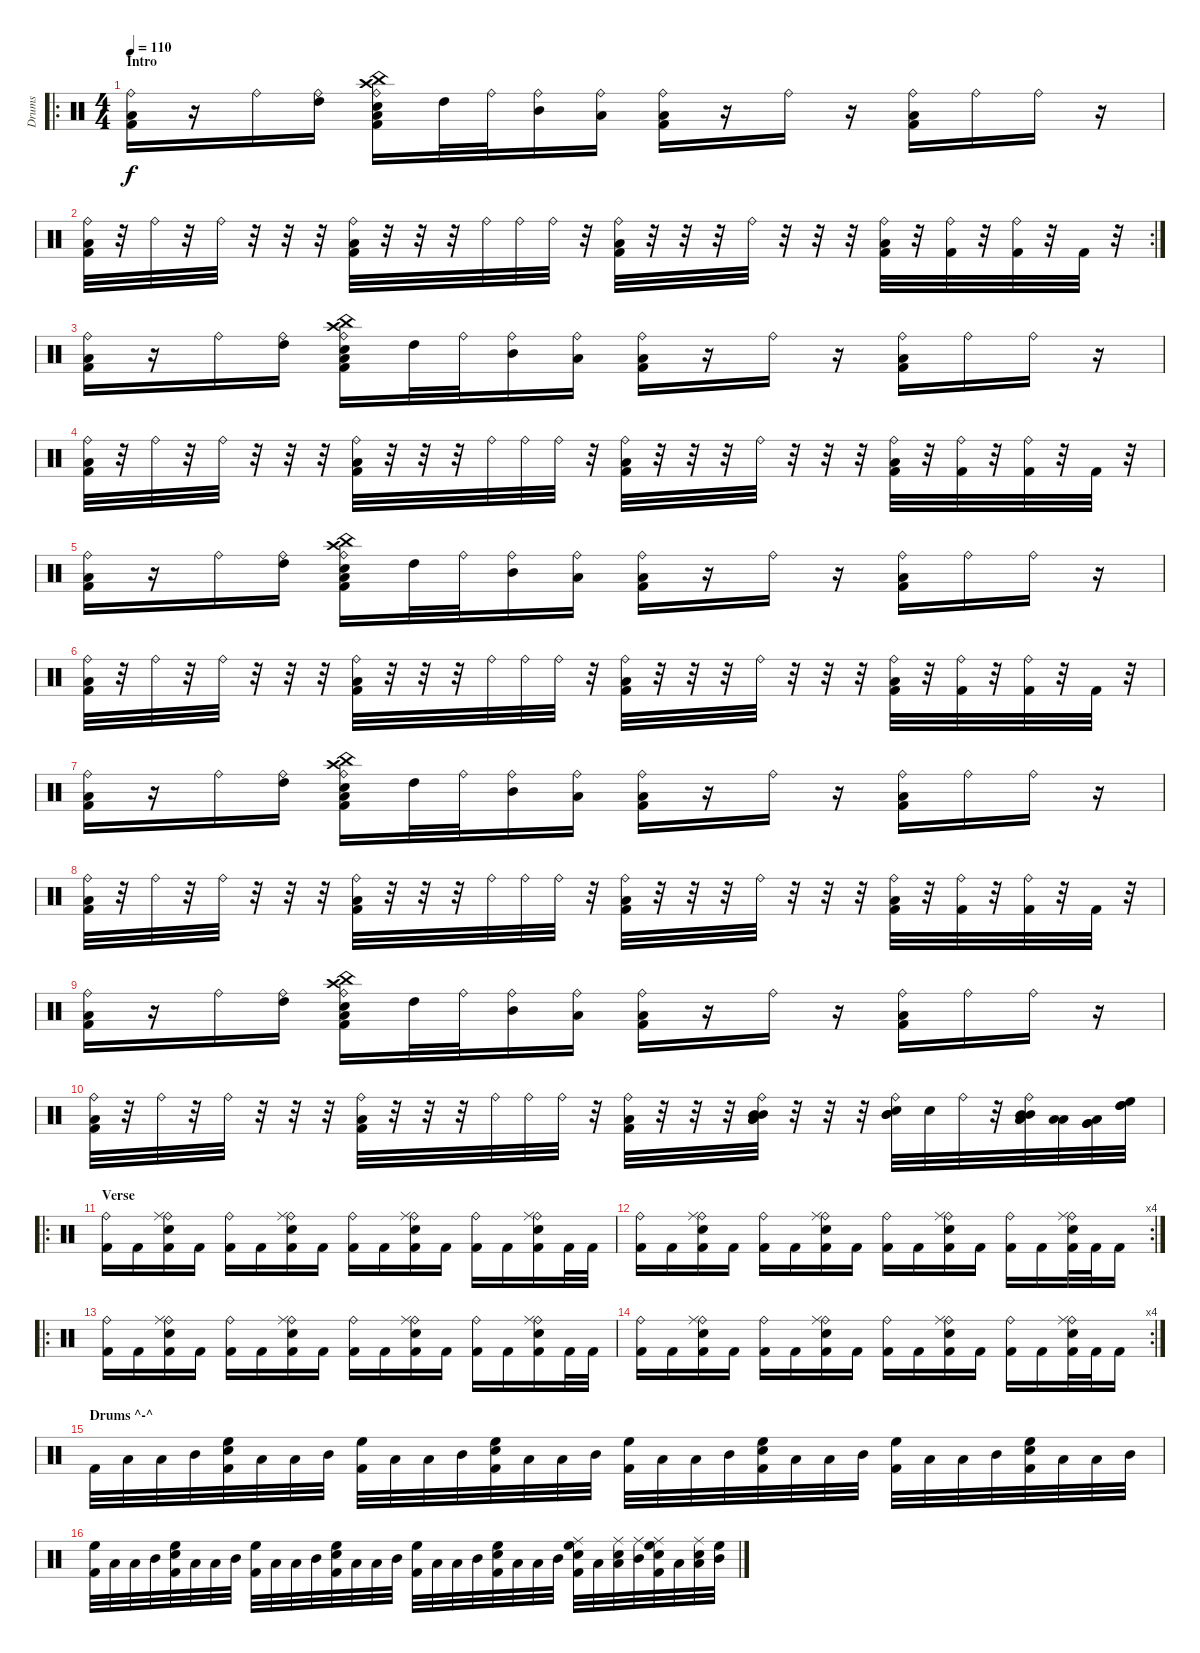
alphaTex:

\track ("Drums" "Drums") {instrument percussion}
\staff {score}
\articulation defaults
\ro
\ts (4 4)
\section ("" "Intro")
\tempo 110
\clef neutral
\ks c
("Ride (bell)" "Low Floor Tom (hit)" "Kick (hit) 2").16{dy f} r.16 "Ride (bell)".16 ("Ride (bell)" "High Tom (hit)").16 ("Ride (bell)" "China (hit)" "Snare (hit) 2" "Crash high (hit)" "Low Floor Tom (hit)" "Kick (hit) 2").16 "High Tom (hit)".32 "Ride (bell)".32 ("Ride (bell)" "Mid Tom (hit)").16 ("Ride (bell)" "Low Tom (hit)").16 ("Ride (bell)" "Low Floor Tom (hit)" "Kick (hit) 2").16 r.16 "Ride (bell)".16 r.16 ("Ride (bell)" "Low Floor Tom (hit)" "Kick (hit) 2").16 "Ride (bell)".16 "Ride (bell)".16 r.16 |
\rc 2
("Ride (bell)" "Low Floor Tom (hit)" "Kick (hit) 2").32 r.32 "Ride (bell)".32 r.32 "Ride (bell)".32 r.32 r.32 r.32 ("Ride (bell)" "Low Floor Tom (hit)" "Kick (hit) 2").32 r.32 r.32 r.32 "Ride (bell)".32 "Ride (bell)".32 "Ride (bell)".32 r.32 ("Ride (bell)" "Low Floor Tom (hit)" "Kick (hit) 2").32 r.32 r.32 r.32 "Ride (bell)".32 r.32 r.32 r.32 ("Ride (bell)" "Low Floor Tom (hit)" "Kick (hit) 2").32 r.32 ("Ride (bell)" "Kick (hit) 2").32 r.32 ("Ride (bell)" "Kick (hit) 2").32 r.32 "Kick (hit) 2".32 r.32 |
("Ride (bell)" "Low Floor Tom (hit)" "Kick (hit) 2").16 r.16 "Ride (bell)".16 ("Ride (bell)" "High Tom (hit)").16 ("Ride (bell)" "China (hit)" "Snare (hit) 2" "Crash high (hit)" "Low Floor Tom (hit)" "Kick (hit) 2").16 "High Tom (hit)".32 "Ride (bell)".32 ("Ride (bell)" "Mid Tom (hit)").16 ("Ride (bell)" "Low Tom (hit)").16 ("Ride (bell)" "Low Floor Tom (hit)" "Kick (hit) 2").16 r.16 "Ride (bell)".16 r.16 ("Ride (bell)" "Low Floor Tom (hit)" "Kick (hit) 2").16 "Ride (bell)".16 "Ride (bell)".16 r.16 |
("Ride (bell)" "Low Floor Tom (hit)" "Kick (hit) 2").32 r.32 "Ride (bell)".32 r.32 "Ride (bell)".32 r.32 r.32 r.32 ("Ride (bell)" "Low Floor Tom (hit)" "Kick (hit) 2").32 r.32 r.32 r.32 "Ride (bell)".32 "Ride (bell)".32 "Ride (bell)".32 r.32 ("Ride (bell)" "Low Floor Tom (hit)" "Kick (hit) 2").32 r.32 r.32 r.32 "Ride (bell)".32 r.32 r.32 r.32 ("Ride (bell)" "Low Floor Tom (hit)" "Kick (hit) 2").32 r.32 ("Ride (bell)" "Kick (hit) 2").32 r.32 ("Ride (bell)" "Kick (hit) 2").32 r.32 "Kick (hit) 2".32 r.32 |
("Ride (bell)" "Low Floor Tom (hit)" "Kick (hit) 2").16 r.16 "Ride (bell)".16 ("Ride (bell)" "High Tom (hit)").16 ("Ride (bell)" "China (hit)" "Snare (hit) 2" "Crash high (hit)" "Low Floor Tom (hit)" "Kick (hit) 2").16 "High Tom (hit)".32 "Ride (bell)".32 ("Ride (bell)" "Mid Tom (hit)").16 ("Ride (bell)" "Low Tom (hit)").16 ("Ride (bell)" "Low Floor Tom (hit)" "Kick (hit) 2").16 r.16 "Ride (bell)".16 r.16 ("Ride (bell)" "Low Floor Tom (hit)" "Kick (hit) 2").16 "Ride (bell)".16 "Ride (bell)".16 r.16 |
("Ride (bell)" "Low Floor Tom (hit)" "Kick (hit) 2").32 r.32 "Ride (bell)".32 r.32 "Ride (bell)".32 r.32 r.32 r.32 ("Ride (bell)" "Low Floor Tom (hit)" "Kick (hit) 2").32 r.32 r.32 r.32 "Ride (bell)".32 "Ride (bell)".32 "Ride (bell)".32 r.32 ("Ride (bell)" "Low Floor Tom (hit)" "Kick (hit) 2").32 r.32 r.32 r.32 "Ride (bell)".32 r.32 r.32 r.32 ("Ride (bell)" "Low Floor Tom (hit)" "Kick (hit) 2").32 r.32 ("Ride (bell)" "Kick (hit) 2").32 r.32 ("Ride (bell)" "Kick (hit) 2").32 r.32 "Kick (hit) 2".32 r.32 |
("Ride (bell)" "Low Floor Tom (hit)" "Kick (hit) 2").16 r.16 "Ride (bell)".16 ("Ride (bell)" "High Tom (hit)").16 ("Ride (bell)" "China (hit)" "Snare (hit) 2" "Crash high (hit)" "Low Floor Tom (hit)" "Kick (hit) 2").16 "High Tom (hit)".32 "Ride (bell)".32 ("Ride (bell)" "Mid Tom (hit)").16 ("Ride (bell)" "Low Tom (hit)").16 ("Ride (bell)" "Low Floor Tom (hit)" "Kick (hit) 2").16 r.16 "Ride (bell)".16 r.16 ("Ride (bell)" "Low Floor Tom (hit)" "Kick (hit) 2").16 "Ride (bell)".16 "Ride (bell)".16 r.16 |
("Ride (bell)" "Low Floor Tom (hit)" "Kick (hit) 2").32 r.32 "Ride (bell)".32 r.32 "Ride (bell)".32 r.32 r.32 r.32 ("Ride (bell)" "Low Floor Tom (hit)" "Kick (hit) 2").32 r.32 r.32 r.32 "Ride (bell)".32 "Ride (bell)".32 "Ride (bell)".32 r.32 ("Ride (bell)" "Low Floor Tom (hit)" "Kick (hit) 2").32 r.32 r.32 r.32 "Ride (bell)".32 r.32 r.32 r.32 ("Ride (bell)" "Low Floor Tom (hit)" "Kick (hit) 2").32 r.32 ("Ride (bell)" "Kick (hit) 2").32 r.32 ("Ride (bell)" "Kick (hit) 2").32 r.32 "Kick (hit) 2".32 r.32 |
("Ride (bell)" "Low Floor Tom (hit)" "Kick (hit) 2").16 r.16 "Ride (bell)".16 ("Ride (bell)" "High Tom (hit)").16 ("Ride (bell)" "China (hit)" "Snare (hit) 2" "Crash high (hit)" "Low Floor Tom (hit)" "Kick (hit) 2").16 "High Tom (hit)".32 "Ride (bell)".32 ("Ride (bell)" "Mid Tom (hit)").16 ("Ride (bell)" "Low Tom (hit)").16 ("Ride (bell)" "Low Floor Tom (hit)" "Kick (hit) 2").16 r.16 "Ride (bell)".16 r.16 ("Ride (bell)" "Low Floor Tom (hit)" "Kick (hit) 2").16 "Ride (bell)".16 "Ride (bell)".16 r.16 |
("Ride (bell)" "Low Floor Tom (hit)" "Kick (hit) 2").32 r.32 "Ride (bell)".32 r.32 "Ride (bell)".32 r.32 r.32 r.32 ("Ride (bell)" "Low Floor Tom (hit)" "Kick (hit) 2").32 r.32 r.32 r.32 "Ride (bell)".32 "Ride (bell)".32 "Ride (bell)".32 r.32 ("Ride (bell)" "Low Floor Tom (hit)" "Kick (hit) 2").32 r.32 r.32 r.32 ("Ride (bell)" "Mid Tom (hit)" "Mid Tom (hit)" "Low Tom (hit)" "Low Tom (hit)").32 r.32 r.32 r.32 ("Ride (bell)" "Mid Tom (hit)" "Mid Tom (hit)" "Snare (hit) 2").32 "Snare (hit) 2".32 "Ride (bell)".32 r.32 ("Ride (bell)" "Mid Tom (hit)" "Mid Tom (hit)" "Low Tom (hit)" "Low Tom (hit)").32 ("Low Tom (hit)" "Low Tom (hit)").32 ("Very Low Tom (hit)" "Very Low Tom (hit)" "Low Floor Tom (hit)").32 ("High Tom (hit)" "High Tom (hit)" "High Floor Tom (hit)").32 |
\ro
\section ("" "Verse")
("Ride (bell)" "Kick (hit) 2").16 "Kick (hit) 2".16 ("Ride (bell)" "Ride (middle)" "Snare (hit) 2" "Kick (hit) 2").16 "Kick (hit) 2".16 ("Ride (bell)" "Kick (hit) 2").16 "Kick (hit) 2".16 ("Ride (bell)" "Ride (middle)" "Snare (hit) 2" "Kick (hit) 2").16 "Kick (hit) 2".16 ("Ride (bell)" "Kick (hit) 2").16 "Kick (hit) 2".16 ("Ride (bell)" "Ride (middle)" "Snare (hit) 2" "Kick (hit) 2").16 "Kick (hit) 2".16 ("Ride (bell)" "Kick (hit) 2").16 "Kick (hit) 2".16 ("Ride (bell)" "Ride (middle)" "Snare (hit) 2" "Kick (hit) 2").16 "Kick (hit) 2".32 "Kick (hit) 2".32 |
\rc 4
("Ride (bell)" "Kick (hit) 2").16 "Kick (hit) 2".16 ("Ride (bell)" "Ride (middle)" "Snare (hit) 2" "Kick (hit) 2").16 "Kick (hit) 2".16 ("Ride (bell)" "Kick (hit) 2").16 "Kick (hit) 2".16 ("Ride (bell)" "Ride (middle)" "Snare (hit) 2" "Kick (hit) 2").16 "Kick (hit) 2".16 ("Ride (bell)" "Kick (hit) 2").16 "Kick (hit) 2".16 ("Ride (bell)" "Ride (middle)" "Snare (hit) 2" "Kick (hit) 2").16 "Kick (hit) 2".16 ("Ride (bell)" "Kick (hit) 2").16 "Kick (hit) 2".16 ("Ride (bell)" "Ride (middle)" "Snare (hit) 2" "Kick (hit) 2").32 "Kick (hit) 2".32 "Kick (hit) 2".16 |
\ro
("Ride (bell)" "Kick (hit) 2").16 "Kick (hit) 2".16 ("Ride (bell)" "Ride (middle)" "Snare (hit) 2" "Kick (hit) 2").16 "Kick (hit) 2".16 ("Ride (bell)" "Kick (hit) 2").16 "Kick (hit) 2".16 ("Ride (bell)" "Ride (middle)" "Snare (hit) 2" "Kick (hit) 2").16 "Kick (hit) 2".16 ("Ride (bell)" "Kick (hit) 2").16 "Kick (hit) 2".16 ("Ride (bell)" "Ride (middle)" "Snare (hit) 2" "Kick (hit) 2").16 "Kick (hit) 2".16 ("Ride (bell)" "Kick (hit) 2").16 "Kick (hit) 2".16 ("Ride (bell)" "Ride (middle)" "Snare (hit) 2" "Kick (hit) 2").16 "Kick (hit) 2".32 "Kick (hit) 2".32 |
\rc 4
("Ride (bell)" "Kick (hit) 2").16 "Kick (hit) 2".16 ("Ride (bell)" "Ride (middle)" "Snare (hit) 2" "Kick (hit) 2").16 "Kick (hit) 2".16 ("Ride (bell)" "Kick (hit) 2").16 "Kick (hit) 2".16 ("Ride (bell)" "Ride (middle)" "Snare (hit) 2" "Kick (hit) 2").16 "Kick (hit) 2".16 ("Ride (bell)" "Kick (hit) 2").16 "Kick (hit) 2".16 ("Ride (bell)" "Ride (middle)" "Snare (hit) 2" "Kick (hit) 2").16 "Kick (hit) 2".16 ("Ride (bell)" "Kick (hit) 2").16 "Kick (hit) 2".16 ("Ride (bell)" "Ride (middle)" "Snare (hit) 2" "Kick (hit) 2").32 "Kick (hit) 2".32 "Kick (hit) 2".16 |
\section ("" "Drums ^-^")
"Kick (hit) 2".32 "Low Floor Tom (hit)".32 "Low Tom (hit)".32 "Mid Tom (hit)".32 ("High Floor Tom (hit)" "Snare (hit) 2" "Kick (hit) 2").32 "Low Floor Tom (hit)".32 "Low Tom (hit)".32 "Mid Tom (hit)".32 ("High Floor Tom (hit)" "Kick (hit) 2").32 "Low Floor Tom (hit)".32 "Low Tom (hit)".32 "Mid Tom (hit)".32 ("High Floor Tom (hit)" "Snare (hit) 2" "Kick (hit) 2").32 "Low Floor Tom (hit)".32 "Low Tom (hit)".32 "Mid Tom (hit)".32 ("High Floor Tom (hit)" "Kick (hit) 2").32 "Low Floor Tom (hit)".32 "Low Tom (hit)".32 "Mid Tom (hit)".32 ("High Floor Tom (hit)" "Snare (hit) 2" "Kick (hit) 2").32 "Low Floor Tom (hit)".32 "Low Tom (hit)".32 "Mid Tom (hit)".32 ("High Floor Tom (hit)" "Kick (hit) 2").32 "Low Floor Tom (hit)".32 "Low Tom (hit)".32 "Mid Tom (hit)".32 ("High Floor Tom (hit)" "Snare (hit) 2" "Kick (hit) 2").32 "Low Floor Tom (hit)".32 "Low Tom (hit)".32 "Mid Tom (hit)".32 |
("High Floor Tom (hit)" "Kick (hit) 2").32 "Low Floor Tom (hit)".32 "Low Tom (hit)".32 "Mid Tom (hit)".32 ("High Floor Tom (hit)" "Snare (hit) 2" "Kick (hit) 2").32 "Low Floor Tom (hit)".32 "Low Tom (hit)".32 "Mid Tom (hit)".32 ("High Floor Tom (hit)" "Kick (hit) 2").32 "Low Floor Tom (hit)".32 "Low Tom (hit)".32 "Mid Tom (hit)".32 ("High Floor Tom (hit)" "Snare (hit) 2" "Kick (hit) 2").32 "Low Floor Tom (hit)".32 "Low Tom (hit)".32 "Mid Tom (hit)".32 ("High Floor Tom (hit)" "Kick (hit) 2").32 "Low Floor Tom (hit)".32 "Low Tom (hit)".32 "Mid Tom (hit)".32 ("High Floor Tom (hit)" "Snare (hit) 2" "Kick (hit) 2").32 "Low Floor Tom (hit)".32 "Low Tom (hit)".32 "Mid Tom (hit)".32 ("Ride (middle)" "High Floor Tom (hit)" "Snare (hit) 2" "Kick (hit) 2").32 "Low Floor Tom (hit)".32 ("Ride (middle)" "Snare (hit) 2" "Low Tom (hit)").32 ("Ride (middle)" "Mid Tom (hit)").32 ("Ride (middle)" "High Floor Tom (hit)" "Snare (hit) 2" "Kick (hit) 2").32 "Low Floor Tom (hit)".32 ("Ride (middle)" "Low Tom (hit)" "Snare (hit) 2").32 ("High Floor Tom (hit)" "Mid Tom (hit)").32
